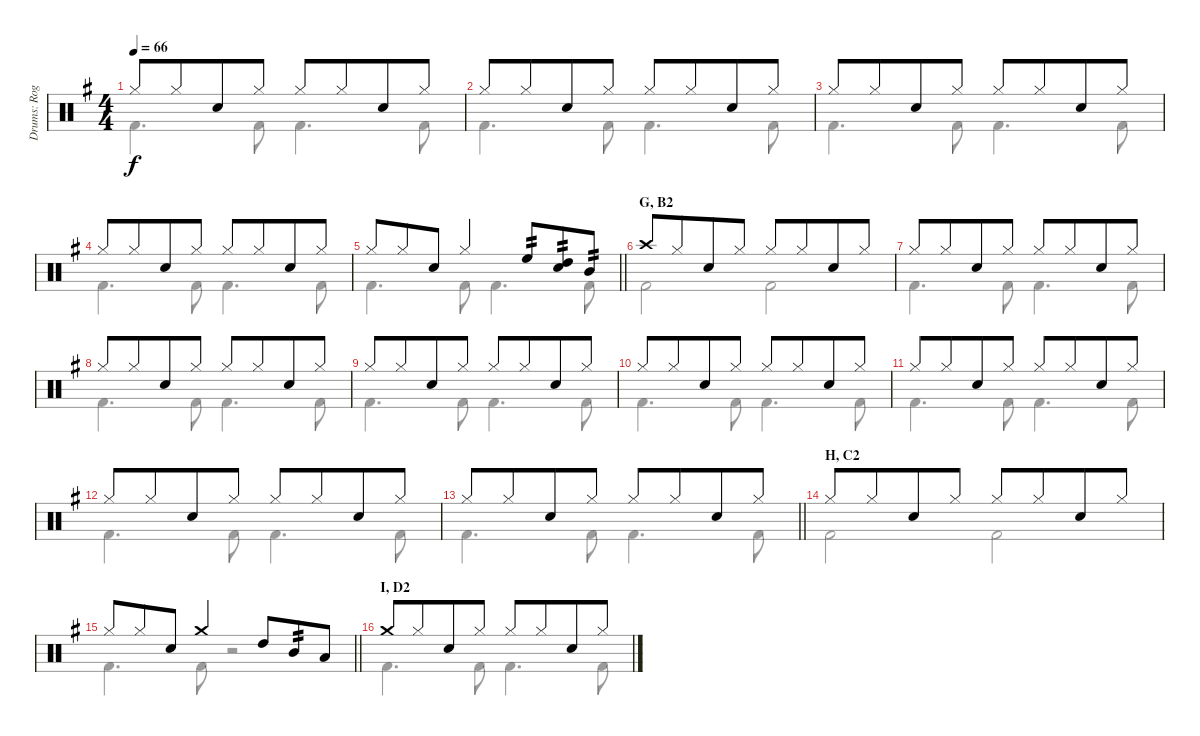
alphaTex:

\track ("Drums: Roger Pope" "Drums: Rog") {instrument percussion}
\staff {score}
\articulation defaults
\voice
\ts (4 4)
\tempo 66
\clef neutral
\ks g "Hi-Hat (closed)".8{dy f beam merge} "Hi-Hat (closed)".8{beam merge} "Electric Snare (hit)".8{beam merge} "Hi-Hat (closed)".8 "Hi-Hat (closed)".8 "Hi-Hat (closed)".8{beam merge} "Electric Snare (hit)".8 "Hi-Hat (closed)".8
|
"Hi-Hat (closed)".8{beam merge} "Hi-Hat (closed)".8{beam merge} "Electric Snare (hit)".8{beam merge} "Hi-Hat (closed)".8 "Hi-Hat (closed)".8 "Hi-Hat (closed)".8{beam merge} "Electric Snare (hit)".8 "Hi-Hat (closed)".8 |
"Hi-Hat (closed)".8{beam merge} "Hi-Hat (closed)".8{beam merge} "Electric Snare (hit)".8{beam merge} "Hi-Hat (closed)".8 "Hi-Hat (closed)".8 "Hi-Hat (closed)".8{beam merge} "Electric Snare (hit)".8 "Hi-Hat (closed)".8 |
"Hi-Hat (closed)".8{beam merge} "Hi-Hat (closed)".8{beam merge} "Electric Snare (hit)".8{beam merge} "Hi-Hat (closed)".8 "Hi-Hat (closed)".8 "Hi-Hat (closed)".8{beam merge} "Electric Snare (hit)".8 "Hi-Hat (closed)".8 |
\barLineRight lightlight "Hi-Hat (closed)".8 "Hi-Hat (closed)".8{beam merge} "Electric Snare (hit)".8 "Hi-Hat (closed)".4 "High Floor Tom (hit)".8{tp 2 beam merge}
("Electric Snare (hit)" "High Tom (hit)").8{tp 2} "Mid Tom (hit)".8{tp 2} |
\section ("" "G, B2")
"Crash high (hit)".8 "Hi-Hat (closed)".8{beam merge} "Electric Snare (hit)".8 "Hi-Hat (closed)".8 "Hi-Hat (closed)".8 "Hi-Hat (closed)".8{beam merge} "Electric Snare (hit)".8 "Hi-Hat (closed)".8 |
"Hi-Hat (closed)".8 "Hi-Hat (closed)".8{beam merge} "Electric Snare (hit)".8 "Hi-Hat (closed)".8 "Hi-Hat (closed)".8 "Hi-Hat (closed)".8{beam merge} "Electric Snare (hit)".8 "Hi-Hat (closed)".8 |
"Hi-Hat (closed)".8 "Hi-Hat (closed)".8{beam merge} "Electric Snare (hit)".8 "Hi-Hat (closed)".8 "Hi-Hat (closed)".8 "Hi-Hat (closed)".8{beam merge} "Electric Snare (hit)".8 "Hi-Hat (closed)".8 |
"Hi-Hat (closed)".8 "Hi-Hat (closed)".8{beam merge} "Electric Snare (hit)".8 "Hi-Hat (closed)".8 "Hi-Hat (closed)".8 "Hi-Hat (closed)".8{beam merge} "Electric Snare (hit)".8 "Hi-Hat (closed)".8 |
"Hi-Hat (closed)".8 "Hi-Hat (closed)".8{beam merge} "Electric Snare (hit)".8 "Hi-Hat (closed)".8 "Hi-Hat (closed)".8 "Hi-Hat (closed)".8{beam merge} "Electric Snare (hit)".8 "Hi-Hat (closed)".8 |
"Hi-Hat (closed)".8 "Hi-Hat (closed)".8{beam merge} "Electric Snare (hit)".8 "Hi-Hat (closed)".8 "Hi-Hat (closed)".8 "Hi-Hat (closed)".8{beam merge} "Electric Snare (hit)".8 "Hi-Hat (closed)".8 |
"Hi-Hat (closed)".8 "Hi-Hat (closed)".8{beam merge} "Electric Snare (hit)".8 "Hi-Hat (closed)".8 "Hi-Hat (closed)".8 "Hi-Hat (closed)".8{beam merge} "Electric Snare (hit)".8 "Hi-Hat (closed)".8 |
\barLineRight lightlight "Hi-Hat (closed)".8 "Hi-Hat (closed)".8{beam merge} "Electric Snare (hit)".8 "Hi-Hat (closed)".8 "Hi-Hat (closed)".8 "Hi-Hat (closed)".8{beam merge} "Electric Snare (hit)".8 "Hi-Hat (closed)".8
|
\section ("" "H, C2")
"Hi-Hat (closed)".8 "Hi-Hat (closed)".8{beam merge} "Electric Snare (hit)".8 "Hi-Hat (closed)".8 "Hi-Hat (closed)".8 "Hi-Hat (closed)".8{beam merge} "Electric Snare (hit)".8 "Hi-Hat (closed)".8 |
\barLineRight lightlight "Hi-Hat (closed)".8{beam merge} "Hi-Hat (closed)".8{beam merge} "Electric Snare (hit)".8 "Crash medium (hit)".4 "High Tom (hit)".8{beam merge} "Mid Tom (hit)".8{tp 2 beam merge} "Low Tom (hit)".8
|
\section ("" "I, D2")
"Crash medium (hit)".8 "Hi-Hat (closed)".8{beam merge} "Electric Snare (hit)".8 "Hi-Hat (closed)".8 "Hi-Hat (closed)".8 "Hi-Hat (closed)".8{beam merge} "Electric Snare (hit)".8 "Hi-Hat (closed)".8
\voice
\clef neutral
\ottava regular
\simile none
\ks g "Kick (hit) 2".4{d dy f} "Kick (hit) 2".8 "Kick (hit) 2".4{d} "Kick (hit) 2".8
|
"Kick (hit) 2".4{d} "Kick (hit) 2".8 "Kick (hit) 2".4{d} "Kick (hit) 2".8 |
"Kick (hit) 2".4{d} "Kick (hit) 2".8 "Kick (hit) 2".4{d} "Kick (hit) 2".8 |
"Kick (hit) 2".4{d} "Kick (hit) 2".8 "Kick (hit) 2".4{d} "Kick (hit) 2".8 |
\barLineRight lightlight "Kick (hit) 2".4{d} "Kick (hit) 2".8 "Kick (hit) 2".4{d} "Kick (hit) 2".8
|
"Kick (hit) 2".2 "Kick (hit) 2".2 |
"Kick (hit) 2".4{d} "Kick (hit) 2".8 "Kick (hit) 2".4{d} "Kick (hit) 2".8 |
"Kick (hit) 2".4{d} "Kick (hit) 2".8 "Kick (hit) 2".4{d} "Kick (hit) 2".8 |
"Kick (hit) 2".4{d} "Kick (hit) 2".8 "Kick (hit) 2".4{d} "Kick (hit) 2".8 |
"Kick (hit) 2".4{d} "Kick (hit) 2".8 "Kick (hit) 2".4{d} "Kick (hit) 2".8 |
"Kick (hit) 2".4{d} "Kick (hit) 2".8 "Kick (hit) 2".4{d} "Kick (hit) 2".8 |
"Kick (hit) 2".4{d} "Kick (hit) 2".8 "Kick (hit) 2".4{d} "Kick (hit) 2".8 |
\barLineRight lightlight "Kick (hit) 2".4{d} "Kick (hit) 2".8 "Kick (hit) 2".4{d} "Kick (hit) 2".8
|
"Kick (hit) 2".2 "Kick (hit) 2".2 |
\barLineRight lightlight "Kick (hit) 2".4{d} "Kick (hit) 2".8
r.2 |
"Kick (hit) 2".4{d} "Kick (hit) 2".8 "Kick (hit) 2".4{d} "Kick (hit) 2".8
